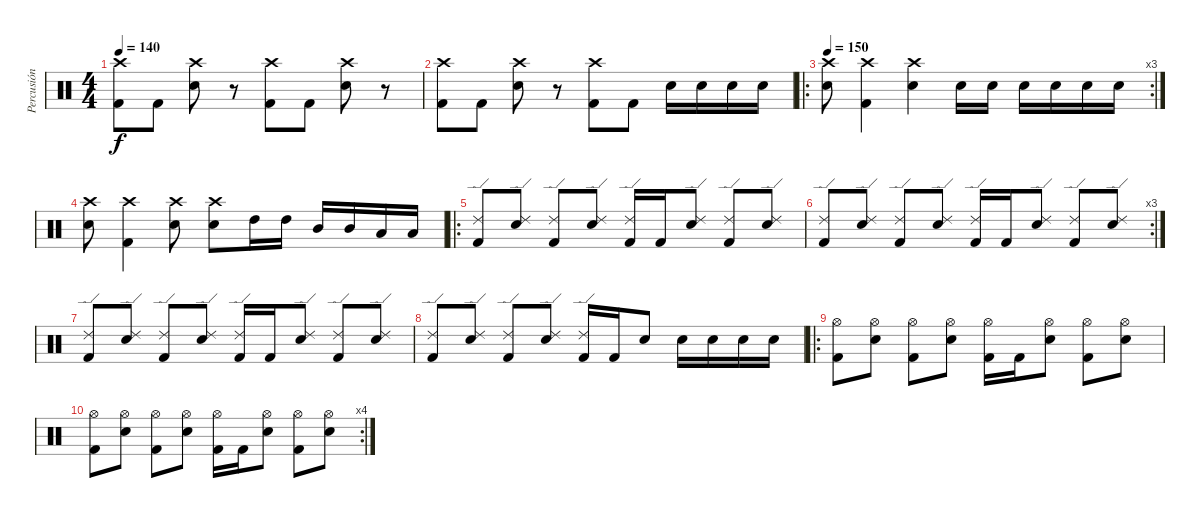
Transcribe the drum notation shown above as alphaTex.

\track ("Percusión" "Percusión") {instrument percussion}
\staff {score}
\articulation defaults
\ts (4 4)
\tempo 140
\clef neutral
\ks c
("Crash high (hit)" "Kick (hit) 2").8{dy f} "Kick (hit) 2".8 ("Crash high (hit)" "Electric Snare (hit)").8 r.8 ("Crash high (hit)" "Kick (hit) 2").8 "Kick (hit) 2".8 ("Crash high (hit)" "Electric Snare (hit)").8 r.8 |
("Crash high (hit)" "Kick (hit) 2").8 "Kick (hit) 2".8 ("Crash high (hit)" "Electric Snare (hit)").8 r.8 ("Crash high (hit)" "Kick (hit) 2").8 "Kick (hit) 2".8 "Electric Snare (hit)".16 "Electric Snare (hit)".16 "Electric Snare (hit)".16 "Electric Snare (hit)".16 |
\ro
\rc 3
\tempo 150
("Crash high (hit)" "Electric Snare (hit)").8 ("Crash high (hit)" "Kick (hit) 2").4 ("Crash high (hit)" "Electric Snare (hit)").4 "Electric Snare (hit)".16 "Electric Snare (hit)".16 "Electric Snare (hit)".16 "Electric Snare (hit)".16 "Electric Snare (hit)".16 "Electric Snare (hit)".16 |
("Crash high (hit)" "Electric Snare (hit)").8 ("Crash high (hit)" "Kick (hit) 2").4 ("Crash high (hit)" "Electric Snare (hit)").8 ("Crash high (hit)" "Electric Snare (hit)").8 "High Tom (hit)".16 "High Tom (hit)".16 "Mid Tom (hit)".16 "Mid Tom (hit)".16 "Low Tom (hit)".16 "Low Tom (hit)".16 |
\ro
("Ride (edge) 2" "Kick (hit) 2").8 ("Ride (edge) 2" "Electric Snare (hit)").8 ("Ride (edge) 2" "Kick (hit) 2").8 ("Ride (edge) 2" "Electric Snare (hit)").8 ("Ride (edge) 2" "Kick (hit) 2").16 "Kick (hit) 2".16 ("Ride (edge) 2" "Electric Snare (hit)").8 ("Ride (edge) 2" "Kick (hit) 2").8 ("Ride (edge) 2" "Electric Snare (hit)").8 |
\rc 3
("Ride (edge) 2" "Kick (hit) 2").8 ("Ride (edge) 2" "Electric Snare (hit)").8 ("Ride (edge) 2" "Kick (hit) 2").8 ("Ride (edge) 2" "Electric Snare (hit)").8 ("Ride (edge) 2" "Kick (hit) 2").16 "Kick (hit) 2".16 ("Ride (edge) 2" "Electric Snare (hit)").8 ("Ride (edge) 2" "Kick (hit) 2").8 ("Ride (edge) 2" "Electric Snare (hit)").8 |
("Ride (edge) 2" "Kick (hit) 2").8 ("Ride (edge) 2" "Electric Snare (hit)").8 ("Ride (edge) 2" "Kick (hit) 2").8 ("Ride (edge) 2" "Electric Snare (hit)").8 ("Ride (edge) 2" "Kick (hit) 2").16 "Kick (hit) 2".16 ("Ride (edge) 2" "Electric Snare (hit)").8 ("Ride (edge) 2" "Kick (hit) 2").8 ("Ride (edge) 2" "Electric Snare (hit)").8 |
("Ride (edge) 2" "Kick (hit) 2").8 ("Ride (edge) 2" "Electric Snare (hit)").8 ("Ride (edge) 2" "Kick (hit) 2").8 ("Ride (edge) 2" "Electric Snare (hit)").8 ("Ride (edge) 2" "Kick (hit) 2").16 "Kick (hit) 2".16 "Electric Snare (hit)".8 "Electric Snare (hit)".16 "Electric Snare (hit)".16 "Electric Snare (hit)".16 "Electric Snare (hit)".16 |
\ro
("Hi-Hat (open)" "Kick (hit) 2").8 ("Hi-Hat (open)" "Electric Snare (hit)").8 ("Hi-Hat (open)" "Kick (hit) 2").8 ("Hi-Hat (open)" "Electric Snare (hit)").8 ("Hi-Hat (open)" "Kick (hit) 2").16 "Kick (hit) 2".16 ("Hi-Hat (open)" "Electric Snare (hit)").8 ("Hi-Hat (open)" "Kick (hit) 2").8 ("Hi-Hat (open)" "Electric Snare (hit)").8 |
\rc 4
("Hi-Hat (open)" "Kick (hit) 2").8 ("Hi-Hat (open)" "Electric Snare (hit)").8 ("Hi-Hat (open)" "Kick (hit) 2").8 ("Hi-Hat (open)" "Electric Snare (hit)").8 ("Hi-Hat (open)" "Kick (hit) 2").16 "Kick (hit) 2".16 ("Hi-Hat (open)" "Electric Snare (hit)").8 ("Hi-Hat (open)" "Kick (hit) 2").8 ("Hi-Hat (open)" "Electric Snare (hit)").8
